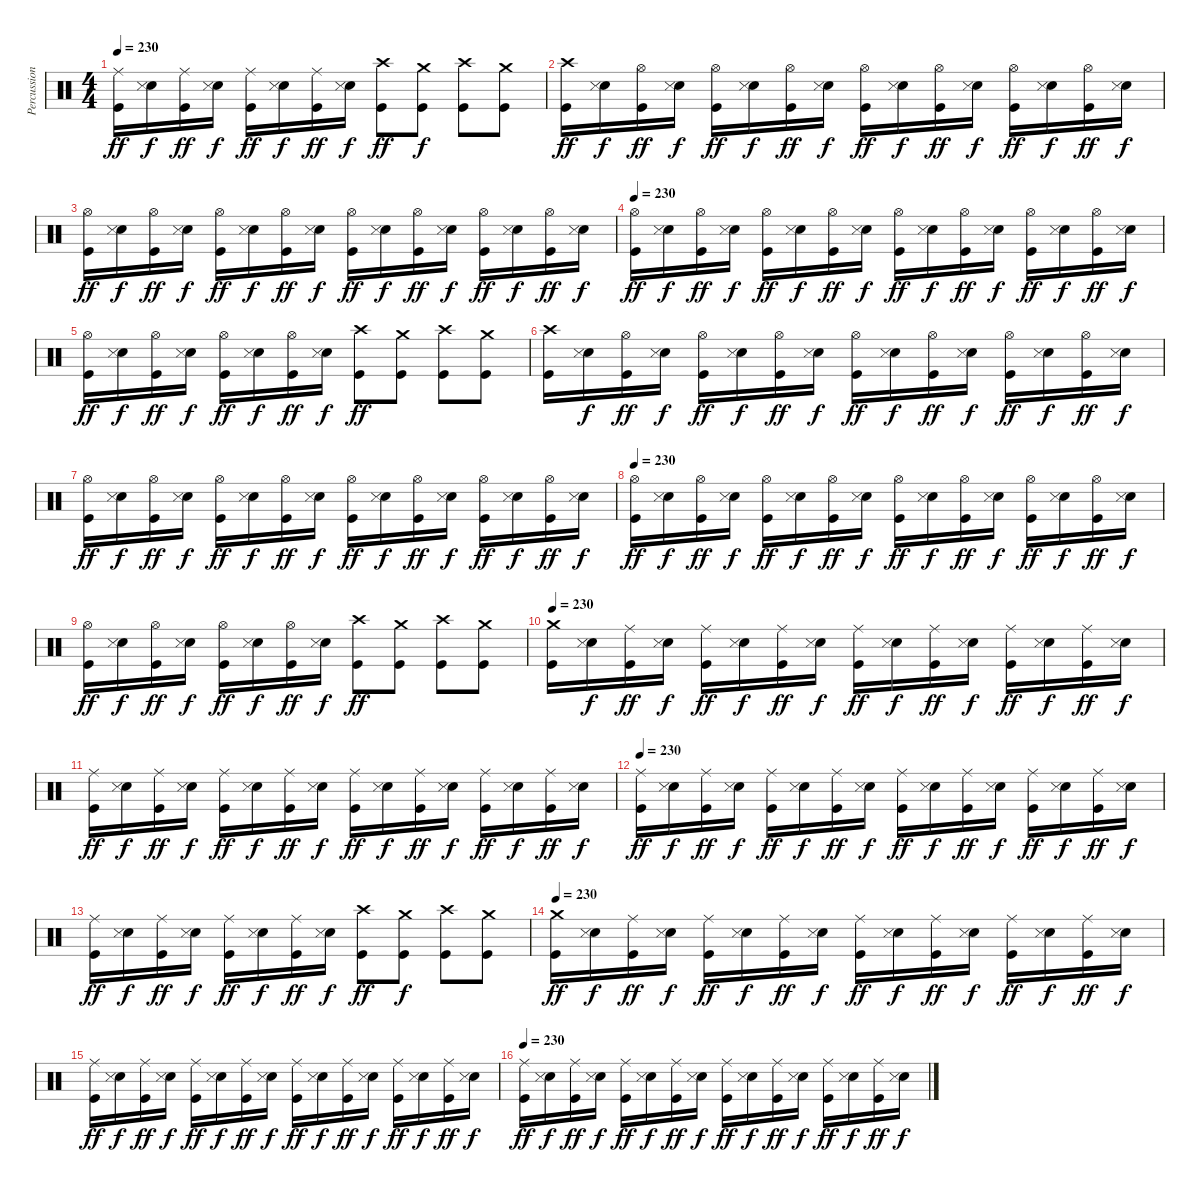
\track ("Percussions" "Percussion") {instrument percussion}
\staff {score}
\articulation defaults
\ts (4 4)
\tempo 230
\clef neutral
\ks c
("Ride (middle)" "Kick (hit)").16{dy ff} ("Electric Snare (hit)" "Snare (side stick) 3").16{dy f} ("Ride (middle)" "Kick (hit)").16{dy ff} ("Electric Snare (hit)" "Snare (side stick) 3").16{dy f} ("Ride (middle)" "Kick (hit)").16{dy ff} ("Electric Snare (hit)" "Snare (side stick) 3").16{dy f} ("Ride (middle)" "Kick (hit)").16{dy ff} ("Electric Snare (hit)" "Snare (side stick) 3").16{dy f} ("Crash high (hit)" "Kick (hit)").8{dy ff} ("Crash medium (hit)" "Kick (hit)").8{dy f} ("Crash high (hit)" "Kick (hit)").8 ("Crash medium (hit)" "Kick (hit)").8 |
("Crash high (hit)" "Kick (hit)").16{dy ff} ("Electric Snare (hit)" "Snare (side stick) 3").16{dy f} ("Hi-Hat (open)" "Kick (hit)").16{dy ff} ("Electric Snare (hit)" "Snare (side stick) 3").16{dy f} ("Hi-Hat (open)" "Kick (hit)").16{dy ff} ("Electric Snare (hit)" "Snare (side stick) 3").16{dy f} ("Hi-Hat (open)" "Kick (hit)").16{dy ff} ("Electric Snare (hit)" "Snare (side stick) 3").16{dy f} ("Hi-Hat (open)" "Kick (hit)").16{dy ff} ("Electric Snare (hit)" "Snare (side stick) 3").16{dy f} ("Hi-Hat (open)" "Kick (hit)").16{dy ff} ("Electric Snare (hit)" "Snare (side stick) 3").16{dy f} ("Hi-Hat (open)" "Kick (hit)").16{dy ff} ("Electric Snare (hit)" "Snare (side stick) 3").16{dy f} ("Hi-Hat (open)" "Kick (hit)").16{dy ff} ("Electric Snare (hit)" "Snare (side stick) 3").16{dy f} |
("Hi-Hat (open)" "Kick (hit)").16{dy ff} ("Electric Snare (hit)" "Snare (side stick) 3").16{dy f} ("Hi-Hat (open)" "Kick (hit)").16{dy ff} ("Electric Snare (hit)" "Snare (side stick) 3").16{dy f} ("Hi-Hat (open)" "Kick (hit)").16{dy ff} ("Electric Snare (hit)" "Snare (side stick) 3").16{dy f} ("Hi-Hat (open)" "Kick (hit)").16{dy ff} ("Electric Snare (hit)" "Snare (side stick) 3").16{dy f} ("Hi-Hat (open)" "Kick (hit)").16{dy ff} ("Electric Snare (hit)" "Snare (side stick) 3").16{dy f} ("Hi-Hat (open)" "Kick (hit)").16{dy ff} ("Electric Snare (hit)" "Snare (side stick) 3").16{dy f} ("Hi-Hat (open)" "Kick (hit)").16{dy ff} ("Electric Snare (hit)" "Snare (side stick) 3").16{dy f} ("Hi-Hat (open)" "Kick (hit)").16{dy ff} ("Electric Snare (hit)" "Snare (side stick) 3").16{dy f} |
\tempo 230
("Hi-Hat (open)" "Kick (hit)").16{dy ff} ("Electric Snare (hit)" "Snare (side stick) 3").16{dy f} ("Hi-Hat (open)" "Kick (hit)").16{dy ff} ("Electric Snare (hit)" "Snare (side stick) 3").16{dy f} ("Hi-Hat (open)" "Kick (hit)").16{dy ff} ("Electric Snare (hit)" "Snare (side stick) 3").16{dy f} ("Hi-Hat (open)" "Kick (hit)").16{dy ff} ("Electric Snare (hit)" "Snare (side stick) 3").16{dy f} ("Hi-Hat (open)" "Kick (hit)").16{dy ff} ("Electric Snare (hit)" "Snare (side stick) 3").16{dy f} ("Hi-Hat (open)" "Kick (hit)").16{dy ff} ("Electric Snare (hit)" "Snare (side stick) 3").16{dy f} ("Hi-Hat (open)" "Kick (hit)").16{dy ff} ("Electric Snare (hit)" "Snare (side stick) 3").16{dy f} ("Hi-Hat (open)" "Kick (hit)").16{dy ff} ("Electric Snare (hit)" "Snare (side stick) 3").16{dy f} |
("Hi-Hat (open)" "Kick (hit)").16{dy ff} ("Electric Snare (hit)" "Snare (side stick) 3").16{dy f} ("Hi-Hat (open)" "Kick (hit)").16{dy ff} ("Electric Snare (hit)" "Snare (side stick) 3").16{dy f} ("Hi-Hat (open)" "Kick (hit)").16{dy ff} ("Electric Snare (hit)" "Snare (side stick) 3").16{dy f} ("Hi-Hat (open)" "Kick (hit)").16{dy ff} ("Electric Snare (hit)" "Snare (side stick) 3").16{dy f} ("Crash high (hit)" "Kick (hit)").8{dy ff} ("Crash medium (hit)" "Kick (hit)").8 ("Crash high (hit)" "Kick (hit)").8 ("Crash medium (hit)" "Kick (hit)").8 |
("Crash high (hit)" "Kick (hit)").16 ("Electric Snare (hit)" "Snare (side stick) 3").16{dy f} ("Hi-Hat (open)" "Kick (hit)").16{dy ff} ("Electric Snare (hit)" "Snare (side stick) 3").16{dy f} ("Hi-Hat (open)" "Kick (hit)").16{dy ff} ("Electric Snare (hit)" "Snare (side stick) 3").16{dy f} ("Hi-Hat (open)" "Kick (hit)").16{dy ff} ("Electric Snare (hit)" "Snare (side stick) 3").16{dy f} ("Hi-Hat (open)" "Kick (hit)").16{dy ff} ("Electric Snare (hit)" "Snare (side stick) 3").16{dy f} ("Hi-Hat (open)" "Kick (hit)").16{dy ff} ("Electric Snare (hit)" "Snare (side stick) 3").16{dy f} ("Hi-Hat (open)" "Kick (hit)").16{dy ff} ("Electric Snare (hit)" "Snare (side stick) 3").16{dy f} ("Hi-Hat (open)" "Kick (hit)").16{dy ff} ("Electric Snare (hit)" "Snare (side stick) 3").16{dy f} |
("Hi-Hat (open)" "Kick (hit)").16{dy ff} ("Electric Snare (hit)" "Snare (side stick) 3").16{dy f} ("Hi-Hat (open)" "Kick (hit)").16{dy ff} ("Electric Snare (hit)" "Snare (side stick) 3").16{dy f} ("Hi-Hat (open)" "Kick (hit)").16{dy ff} ("Electric Snare (hit)" "Snare (side stick) 3").16{dy f} ("Hi-Hat (open)" "Kick (hit)").16{dy ff} ("Electric Snare (hit)" "Snare (side stick) 3").16{dy f} ("Hi-Hat (open)" "Kick (hit)").16{dy ff} ("Electric Snare (hit)" "Snare (side stick) 3").16{dy f} ("Hi-Hat (open)" "Kick (hit)").16{dy ff} ("Electric Snare (hit)" "Snare (side stick) 3").16{dy f} ("Hi-Hat (open)" "Kick (hit)").16{dy ff} ("Electric Snare (hit)" "Snare (side stick) 3").16{dy f} ("Hi-Hat (open)" "Kick (hit)").16{dy ff} ("Electric Snare (hit)" "Snare (side stick) 3").16{dy f} |
\tempo 230
("Hi-Hat (open)" "Kick (hit)").16{dy ff} ("Electric Snare (hit)" "Snare (side stick) 3").16{dy f} ("Hi-Hat (open)" "Kick (hit)").16{dy ff} ("Electric Snare (hit)" "Snare (side stick) 3").16{dy f} ("Hi-Hat (open)" "Kick (hit)").16{dy ff} ("Electric Snare (hit)" "Snare (side stick) 3").16{dy f} ("Hi-Hat (open)" "Kick (hit)").16{dy ff} ("Electric Snare (hit)" "Snare (side stick) 3").16{dy f} ("Hi-Hat (open)" "Kick (hit)").16{dy ff} ("Electric Snare (hit)" "Snare (side stick) 3").16{dy f} ("Hi-Hat (open)" "Kick (hit)").16{dy ff} ("Electric Snare (hit)" "Snare (side stick) 3").16{dy f} ("Hi-Hat (open)" "Kick (hit)").16{dy ff} ("Electric Snare (hit)" "Snare (side stick) 3").16{dy f} ("Hi-Hat (open)" "Kick (hit)").16{dy ff} ("Electric Snare (hit)" "Snare (side stick) 3").16{dy f} |
("Hi-Hat (open)" "Kick (hit)").16{dy ff} ("Electric Snare (hit)" "Snare (side stick) 3").16{dy f} ("Hi-Hat (open)" "Kick (hit)").16{dy ff} ("Electric Snare (hit)" "Snare (side stick) 3").16{dy f} ("Hi-Hat (open)" "Kick (hit)").16{dy ff} ("Electric Snare (hit)" "Snare (side stick) 3").16{dy f} ("Hi-Hat (open)" "Kick (hit)").16{dy ff} ("Electric Snare (hit)" "Snare (side stick) 3").16{dy f} ("Crash high (hit)" "Kick (hit)").8{dy ff} ("Crash medium (hit)" "Kick (hit)").8 ("Crash high (hit)" "Kick (hit)").8 ("Crash medium (hit)" "Kick (hit)").8 |
\tempo 230
("Crash medium (hit)" "Kick (hit)").16 ("Electric Snare (hit)" "Snare (side stick) 3").16{dy f} ("Ride (middle)" "Kick (hit)").16{dy ff} ("Electric Snare (hit)" "Snare (side stick) 3").16{dy f} ("Ride (middle)" "Kick (hit)").16{dy ff} ("Electric Snare (hit)" "Snare (side stick) 3").16{dy f} ("Ride (middle)" "Kick (hit)").16{dy ff} ("Electric Snare (hit)" "Snare (side stick) 3").16{dy f} ("Ride (middle)" "Kick (hit)").16{dy ff} ("Electric Snare (hit)" "Snare (side stick) 3").16{dy f} ("Ride (middle)" "Kick (hit)").16{dy ff} ("Electric Snare (hit)" "Snare (side stick) 3").16{dy f} ("Ride (middle)" "Kick (hit)").16{dy ff} ("Electric Snare (hit)" "Snare (side stick) 3").16{dy f} ("Ride (middle)" "Kick (hit)").16{dy ff} ("Electric Snare (hit)" "Snare (side stick) 3").16{dy f} |
("Ride (middle)" "Kick (hit)").16{dy ff} ("Electric Snare (hit)" "Snare (side stick) 3").16{dy f} ("Ride (middle)" "Kick (hit)").16{dy ff} ("Electric Snare (hit)" "Snare (side stick) 3").16{dy f} ("Ride (middle)" "Kick (hit)").16{dy ff} ("Electric Snare (hit)" "Snare (side stick) 3").16{dy f} ("Ride (middle)" "Kick (hit)").16{dy ff} ("Electric Snare (hit)" "Snare (side stick) 3").16{dy f} ("Ride (middle)" "Kick (hit)").16{dy ff} ("Electric Snare (hit)" "Snare (side stick) 3").16{dy f} ("Ride (middle)" "Kick (hit)").16{dy ff} ("Electric Snare (hit)" "Snare (side stick) 3").16{dy f} ("Ride (middle)" "Kick (hit)").16{dy ff} ("Electric Snare (hit)" "Snare (side stick) 3").16{dy f} ("Ride (middle)" "Kick (hit)").16{dy ff} ("Electric Snare (hit)" "Snare (side stick) 3").16{dy f} |
\tempo 230
("Ride (middle)" "Kick (hit)").16{dy ff} ("Electric Snare (hit)" "Snare (side stick) 3").16{dy f} ("Ride (middle)" "Kick (hit)").16{dy ff} ("Electric Snare (hit)" "Snare (side stick) 3").16{dy f} ("Ride (middle)" "Kick (hit)").16{dy ff} ("Electric Snare (hit)" "Snare (side stick) 3").16{dy f} ("Ride (middle)" "Kick (hit)").16{dy ff} ("Electric Snare (hit)" "Snare (side stick) 3").16{dy f} ("Ride (middle)" "Kick (hit)").16{dy ff} ("Electric Snare (hit)" "Snare (side stick) 3").16{dy f} ("Ride (middle)" "Kick (hit)").16{dy ff} ("Electric Snare (hit)" "Snare (side stick) 3").16{dy f} ("Ride (middle)" "Kick (hit)").16{dy ff} ("Electric Snare (hit)" "Snare (side stick) 3").16{dy f} ("Ride (middle)" "Kick (hit)").16{dy ff} ("Electric Snare (hit)" "Snare (side stick) 3").16{dy f} |
("Ride (middle)" "Kick (hit)").16{dy ff} ("Electric Snare (hit)" "Snare (side stick) 3").16{dy f} ("Ride (middle)" "Kick (hit)").16{dy ff} ("Electric Snare (hit)" "Snare (side stick) 3").16{dy f} ("Ride (middle)" "Kick (hit)").16{dy ff} ("Electric Snare (hit)" "Snare (side stick) 3").16{dy f} ("Ride (middle)" "Kick (hit)").16{dy ff} ("Electric Snare (hit)" "Snare (side stick) 3").16{dy f} ("Crash high (hit)" "Kick (hit)").8{dy ff} ("Crash medium (hit)" "Kick (hit)").8{dy f} ("Crash high (hit)" "Kick (hit)").8 ("Crash medium (hit)" "Kick (hit)").8 |
\tempo 230
("Crash medium (hit)" "Kick (hit)").16{dy ff} ("Electric Snare (hit)" "Snare (side stick) 3").16{dy f} ("Ride (middle)" "Kick (hit)").16{dy ff} ("Electric Snare (hit)" "Snare (side stick) 3").16{dy f} ("Ride (middle)" "Kick (hit)").16{dy ff} ("Electric Snare (hit)" "Snare (side stick) 3").16{dy f} ("Ride (middle)" "Kick (hit)").16{dy ff} ("Electric Snare (hit)" "Snare (side stick) 3").16{dy f} ("Ride (middle)" "Kick (hit)").16{dy ff} ("Electric Snare (hit)" "Snare (side stick) 3").16{dy f} ("Ride (middle)" "Kick (hit)").16{dy ff} ("Electric Snare (hit)" "Snare (side stick) 3").16{dy f} ("Ride (middle)" "Kick (hit)").16{dy ff} ("Electric Snare (hit)" "Snare (side stick) 3").16{dy f} ("Ride (middle)" "Kick (hit)").16{dy ff} ("Electric Snare (hit)" "Snare (side stick) 3").16{dy f} |
("Ride (middle)" "Kick (hit)").16{dy ff} ("Electric Snare (hit)" "Snare (side stick) 3").16{dy f} ("Ride (middle)" "Kick (hit)").16{dy ff} ("Electric Snare (hit)" "Snare (side stick) 3").16{dy f} ("Ride (middle)" "Kick (hit)").16{dy ff} ("Electric Snare (hit)" "Snare (side stick) 3").16{dy f} ("Ride (middle)" "Kick (hit)").16{dy ff} ("Electric Snare (hit)" "Snare (side stick) 3").16{dy f} ("Ride (middle)" "Kick (hit)").16{dy ff} ("Electric Snare (hit)" "Snare (side stick) 3").16{dy f} ("Ride (middle)" "Kick (hit)").16{dy ff} ("Electric Snare (hit)" "Snare (side stick) 3").16{dy f} ("Ride (middle)" "Kick (hit)").16{dy ff} ("Electric Snare (hit)" "Snare (side stick) 3").16{dy f} ("Ride (middle)" "Kick (hit)").16{dy ff} ("Electric Snare (hit)" "Snare (side stick) 3").16{dy f} |
\tempo 230
("Ride (middle)" "Kick (hit)").16{dy ff} ("Electric Snare (hit)" "Snare (side stick) 3").16{dy f} ("Ride (middle)" "Kick (hit)").16{dy ff} ("Electric Snare (hit)" "Snare (side stick) 3").16{dy f} ("Ride (middle)" "Kick (hit)").16{dy ff} ("Electric Snare (hit)" "Snare (side stick) 3").16{dy f} ("Ride (middle)" "Kick (hit)").16{dy ff} ("Electric Snare (hit)" "Snare (side stick) 3").16{dy f} ("Ride (middle)" "Kick (hit)").16{dy ff} ("Electric Snare (hit)" "Snare (side stick) 3").16{dy f} ("Ride (middle)" "Kick (hit)").16{dy ff} ("Electric Snare (hit)" "Snare (side stick) 3").16{dy f} ("Ride (middle)" "Kick (hit)").16{dy ff} ("Electric Snare (hit)" "Snare (side stick) 3").16{dy f} ("Ride (middle)" "Kick (hit)").16{dy ff} ("Electric Snare (hit)" "Snare (side stick) 3").16{dy f}
